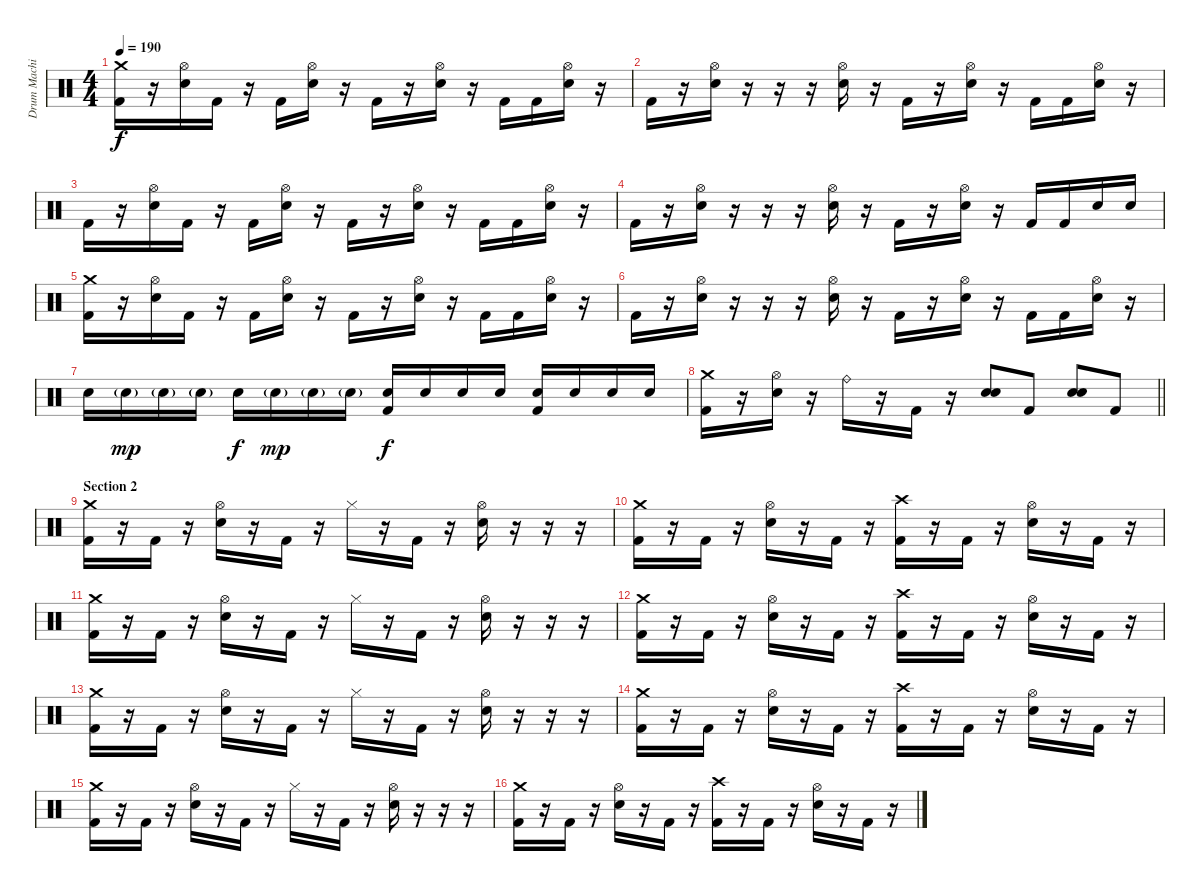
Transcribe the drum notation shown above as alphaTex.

\track ("Drum Machine Man" "Drum Machi") {instrument percussion}
\staff {score}
\articulation defaults
\ts (4 4)
\tempo 190
\clef neutral
\ks c
("Kick (hit) 2" "Crash medium (hit)").16{dy f} r.16 ("Hi-Hat (open)" "Electric Snare (hit)").16 "Kick (hit) 2".16 r.16 "Kick (hit) 2".16 ("Hi-Hat (open)" "Electric Snare (hit)").16 r.16 "Kick (hit) 2".16 r.16 ("Hi-Hat (open)" "Electric Snare (hit)").16 r.16 "Kick (hit) 2".16 "Kick (hit) 2".16 ("Hi-Hat (open)" "Electric Snare (hit)").16 r.16 |
"Kick (hit) 2".16 r.16 ("Hi-Hat (open)" "Electric Snare (hit)").16 r.16 r.16 r.16 ("Hi-Hat (open)" "Electric Snare (hit)").16 r.16 "Kick (hit) 2".16 r.16 ("Hi-Hat (open)" "Electric Snare (hit)").16 r.16 "Kick (hit) 2".16 "Kick (hit) 2".16 ("Hi-Hat (open)" "Electric Snare (hit)").16 r.16 |
"Kick (hit) 2".16 r.16 ("Hi-Hat (open)" "Electric Snare (hit)").16 "Kick (hit) 2".16 r.16 "Kick (hit) 2".16 ("Hi-Hat (open)" "Electric Snare (hit)").16 r.16 "Kick (hit) 2".16 r.16 ("Hi-Hat (open)" "Electric Snare (hit)").16 r.16 "Kick (hit) 2".16 "Kick (hit) 2".16 ("Hi-Hat (open)" "Electric Snare (hit)").16 r.16 |
"Kick (hit) 2".16 r.16 ("Hi-Hat (open)" "Electric Snare (hit)").16 r.16 r.16 r.16 ("Hi-Hat (open)" "Electric Snare (hit)").16 r.16 "Kick (hit) 2".16 r.16 ("Hi-Hat (open)" "Electric Snare (hit)").16 r.16 "Kick (hit) 2".16 "Kick (hit) 2".16 "Electric Snare (hit)".16 "Electric Snare (hit)".16 |
("Kick (hit) 2" "Crash medium (hit)").16 r.16 ("Hi-Hat (open)" "Electric Snare (hit)").16 "Kick (hit) 2".16 r.16 "Kick (hit) 2".16 ("Hi-Hat (open)" "Electric Snare (hit)").16 r.16 "Kick (hit) 2".16 r.16 ("Hi-Hat (open)" "Electric Snare (hit)").16 r.16 "Kick (hit) 2".16 "Kick (hit) 2".16 ("Hi-Hat (open)" "Electric Snare (hit)").16 r.16 |
"Kick (hit) 2".16 r.16 ("Hi-Hat (open)" "Electric Snare (hit)").16 r.16 r.16 r.16 ("Hi-Hat (open)" "Electric Snare (hit)").16 r.16 "Kick (hit) 2".16 r.16 ("Hi-Hat (open)" "Electric Snare (hit)").16 r.16 "Kick (hit) 2".16 "Kick (hit) 2".16 ("Hi-Hat (open)" "Electric Snare (hit)").16 r.16 |
"Electric Snare (hit)".16 "Electric Snare (hit)"{g}.16{dy mp} "Electric Snare (hit)"{g}.16 "Electric Snare (hit)"{g}.16 "Electric Snare (hit)".16{dy f} "Electric Snare (hit)"{g}.16{dy mp} "Electric Snare (hit)"{g}.16 "Electric Snare (hit)"{g}.16 ("Electric Snare (hit)" "Kick (hit) 2").16{dy f} "Electric Snare (hit)".16 "Electric Snare (hit)".16 "Electric Snare (hit)".16 ("Electric Snare (hit)" "Kick (hit) 2").16 "Electric Snare (hit)".16 "Electric Snare (hit)".16 "Electric Snare (hit)".16 |
\barLineRight lightlight
("Crash medium (hit)" "Kick (hit) 2").16 r.16 ("Hi-Hat (open)" "Electric Snare (hit)").16 r.16 "Ride (bell)".16 r.16 "Kick (hit) 2".16 r.16 ("Electric Snare (hit)" "Electric Snare (hit)").8{bd 60} "Kick (hit) 2".8 ("Electric Snare (hit)" "Electric Snare (hit)").8{bu 60} "Kick (hit) 2".8 |
\section ("" "Section 2")
("Crash medium (hit)" "Kick (hit) 2").16 r.16 "Kick (hit) 2".16 r.16 ("Hi-Hat (open)" "Electric Snare (hit)").16 r.16 "Kick (hit) 2".16 r.16 "Hi-Hat (closed)".16 r.16 "Kick (hit) 2".16 r.16 ("Hi-Hat (open)" "Electric Snare (hit)").16 r.16 r.16 r.16 |
("Crash medium (hit)" "Kick (hit) 2").16 r.16 "Kick (hit) 2".16 r.16 ("Hi-Hat (open)" "Electric Snare (hit)").16 r.16 "Kick (hit) 2".16 r.16 ("Crash high (hit)" "Kick (hit) 2").16 r.16 "Kick (hit) 2".16 r.16 ("Hi-Hat (open)" "Electric Snare (hit)").16 r.16 "Kick (hit) 2".16 r.16 |
("Crash medium (hit)" "Kick (hit) 2").16 r.16 "Kick (hit) 2".16 r.16 ("Hi-Hat (open)" "Electric Snare (hit)").16 r.16 "Kick (hit) 2".16 r.16 "Hi-Hat (closed)".16 r.16 "Kick (hit) 2".16 r.16 ("Hi-Hat (open)" "Electric Snare (hit)").16 r.16 r.16 r.16 |
("Crash medium (hit)" "Kick (hit) 2").16 r.16 "Kick (hit) 2".16 r.16 ("Hi-Hat (open)" "Electric Snare (hit)").16 r.16 "Kick (hit) 2".16 r.16 ("Crash high (hit)" "Kick (hit) 2").16 r.16 "Kick (hit) 2".16 r.16 ("Hi-Hat (open)" "Electric Snare (hit)").16 r.16 "Kick (hit) 2".16 r.16 |
("Crash medium (hit)" "Kick (hit) 2").16 r.16 "Kick (hit) 2".16 r.16 ("Hi-Hat (open)" "Electric Snare (hit)").16 r.16 "Kick (hit) 2".16 r.16 "Hi-Hat (closed)".16 r.16 "Kick (hit) 2".16 r.16 ("Hi-Hat (open)" "Electric Snare (hit)").16 r.16 r.16 r.16 |
("Crash medium (hit)" "Kick (hit) 2").16 r.16 "Kick (hit) 2".16 r.16 ("Hi-Hat (open)" "Electric Snare (hit)").16 r.16 "Kick (hit) 2".16 r.16 ("Crash high (hit)" "Kick (hit) 2").16 r.16 "Kick (hit) 2".16 r.16 ("Hi-Hat (open)" "Electric Snare (hit)").16 r.16 "Kick (hit) 2".16 r.16 |
("Crash medium (hit)" "Kick (hit) 2").16 r.16 "Kick (hit) 2".16 r.16 ("Hi-Hat (open)" "Electric Snare (hit)").16 r.16 "Kick (hit) 2".16 r.16 "Hi-Hat (closed)".16 r.16 "Kick (hit) 2".16 r.16 ("Hi-Hat (open)" "Electric Snare (hit)").16 r.16 r.16 r.16 |
("Crash medium (hit)" "Kick (hit) 2").16 r.16 "Kick (hit) 2".16 r.16 ("Hi-Hat (open)" "Electric Snare (hit)").16 r.16 "Kick (hit) 2".16 r.16 ("Crash high (hit)" "Kick (hit) 2").16 r.16 "Kick (hit) 2".16 r.16 ("Hi-Hat (open)" "Electric Snare (hit)").16 r.16 "Kick (hit) 2".16 r.16
